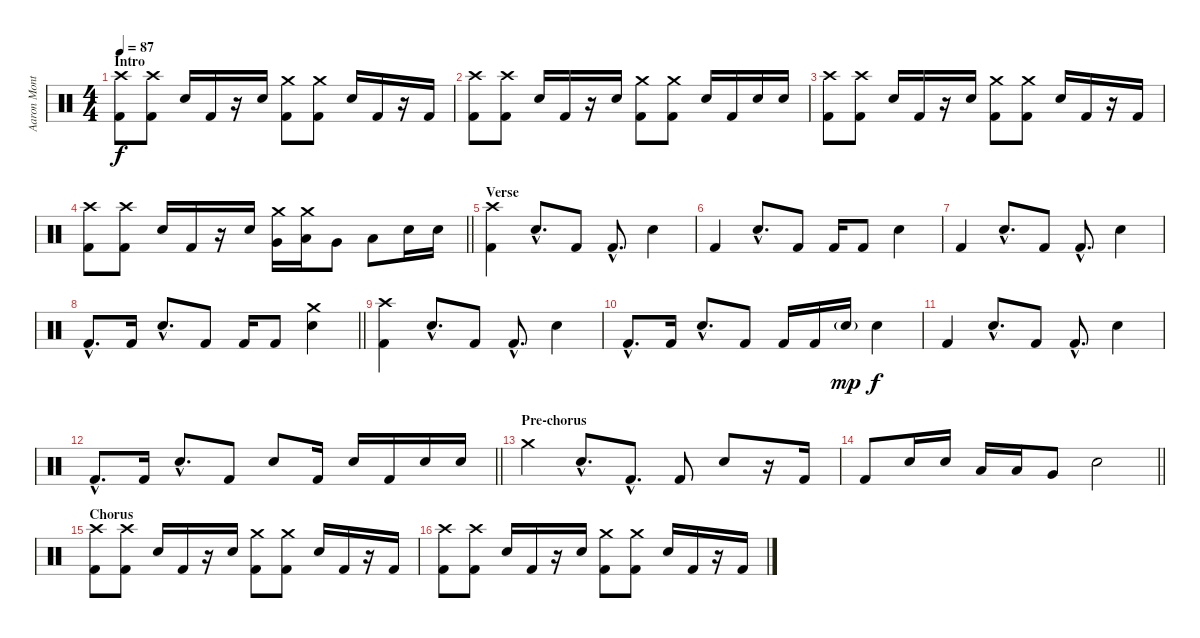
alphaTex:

\track ("Aaron Montgomery (Drums)" "Aaron Mont") {instrument percussion}
\staff {score}
\articulation defaults
\ts (4 4)
\section ("" "Intro")
\tempo 87
\clef neutral
\ks c
("Crash high (hit)" "Kick (hit) 2").8{dy f} ("Crash high (hit)" "Kick (hit) 2").8 "Electric Snare (hit)".16 "Kick (hit) 2".16 r.16 "Electric Snare (hit)".16 ("Crash medium (hit)" "Kick (hit) 2").8 ("Crash medium (hit)" "Kick (hit) 2").8 "Electric Snare (hit)".16 "Kick (hit) 2".16 r.16 "Kick (hit) 2".16 |
("Crash high (hit)" "Kick (hit) 2").8 ("Crash high (hit)" "Kick (hit) 2").8 "Electric Snare (hit)".16 "Kick (hit) 2".16 r.16 "Electric Snare (hit)".16 ("Crash medium (hit)" "Kick (hit) 2").8 ("Crash medium (hit)" "Kick (hit) 2").8 "Electric Snare (hit)".16 "Kick (hit) 2".16 "Electric Snare (hit)".16 "Electric Snare (hit)".16 |
("Crash high (hit)" "Kick (hit) 2").8 ("Crash high (hit)" "Kick (hit) 2").8 "Electric Snare (hit)".16 "Kick (hit) 2".16 r.16 "Electric Snare (hit)".16 ("Crash medium (hit)" "Kick (hit) 2").8 ("Crash medium (hit)" "Kick (hit) 2").8 "Electric Snare (hit)".16 "Kick (hit) 2".16 r.16 "Kick (hit) 2".16 |
\barLineRight lightlight
("Crash high (hit)" "Kick (hit) 2").8 ("Crash high (hit)" "Kick (hit) 2").8 "Electric Snare (hit)".16 "Kick (hit) 2".16 r.16 "Electric Snare (hit)".16 ("Crash medium (hit)" "Very Low Tom (hit)").16 ("Crash medium (hit)" "Low Tom (hit)").16 "Very Low Tom (hit)".8 "Low Tom (hit)".8 "Electric Snare (hit)".16 "Electric Snare (hit)".16 |
\section ("" "Verse")
("Crash high (hit)" "Kick (hit) 2").4 "Electric Snare (hit)"{hac}.8{d} "Kick (hit) 2".8 "Kick (hit) 2"{hac}.8{d} "Electric Snare (hit)".4 |
"Kick (hit) 2".4 "Electric Snare (hit)"{hac}.8{d} "Kick (hit) 2".8 "Kick (hit) 2".16 "Kick (hit) 2".8 "Electric Snare (hit)".4 |
"Kick (hit) 2".4 "Electric Snare (hit)"{hac}.8{d} "Kick (hit) 2".8 "Kick (hit) 2"{hac}.8{d} "Electric Snare (hit)".4 |
\barLineRight lightlight "Kick (hit) 2"{hac}.8{d} "Kick (hit) 2".16 "Electric Snare (hit)"{hac}.8{d} "Kick (hit) 2".8 "Kick (hit) 2".16 "Kick (hit) 2".8
("Crash medium (hit)" "Electric Snare (hit)").4 |
("Crash high (hit)" "Kick (hit) 2").4 "Electric Snare (hit)"{hac}.8{d} "Kick (hit) 2".8 "Kick (hit) 2"{hac}.8{d} "Electric Snare (hit)".4 |
"Kick (hit) 2"{hac}.8{d} "Kick (hit) 2".16 "Electric Snare (hit)"{hac}.8{d} "Kick (hit) 2".8 "Kick (hit) 2".16 "Kick (hit) 2".16 "Electric Snare (hit)"{g}.16{dy mp} "Electric Snare (hit)".4{dy f} |
"Kick (hit) 2".4 "Electric Snare (hit)"{hac}.8{d} "Kick (hit) 2".8 "Kick (hit) 2"{hac}.8{d} "Electric Snare (hit)".4 |
\barLineRight lightlight "Kick (hit) 2"{hac}.8{d} "Kick (hit) 2".16 "Electric Snare (hit)"{hac}.8{d} "Kick (hit) 2".8 "Electric Snare (hit)".8 "Kick (hit) 2".16 "Electric Snare (hit)".16 "Kick (hit) 2".16 "Electric Snare (hit)".16 "Electric Snare (hit)".16
|
\section ("" "Pre-chorus")
"Crash medium (hit)".4 "Electric Snare (hit)"{hac}.8{d} "Kick (hit) 2"{hac}.8{d} "Kick (hit) 2".8 "Electric Snare (hit)".8 r.16 "Kick (hit) 2".16 |
\barLineRight lightlight "Kick (hit) 2".8 "Electric Snare (hit)".16 "Electric Snare (hit)".16 "Low Tom (hit)".16 "Low Tom (hit)".16 "Very Low Tom (hit)".8 "Electric Snare (hit)".2
|
\section ("" "Chorus")
("Crash high (hit)" "Kick (hit) 2").8 ("Crash high (hit)" "Kick (hit) 2").8 "Electric Snare (hit)".16 "Kick (hit) 2".16 r.16 "Electric Snare (hit)".16 ("Crash medium (hit)" "Kick (hit) 2").8 ("Crash medium (hit)" "Kick (hit) 2").8 "Electric Snare (hit)".16 "Kick (hit) 2".16 r.16 "Kick (hit) 2".16 |
("Crash high (hit)" "Kick (hit) 2").8 ("Crash high (hit)" "Kick (hit) 2").8 "Electric Snare (hit)".16 "Kick (hit) 2".16 r.16 "Electric Snare (hit)".16 ("Crash medium (hit)" "Kick (hit) 2").8 ("Crash medium (hit)" "Kick (hit) 2").8 "Electric Snare (hit)".16 "Kick (hit) 2".16 r.16 "Kick (hit) 2".16
